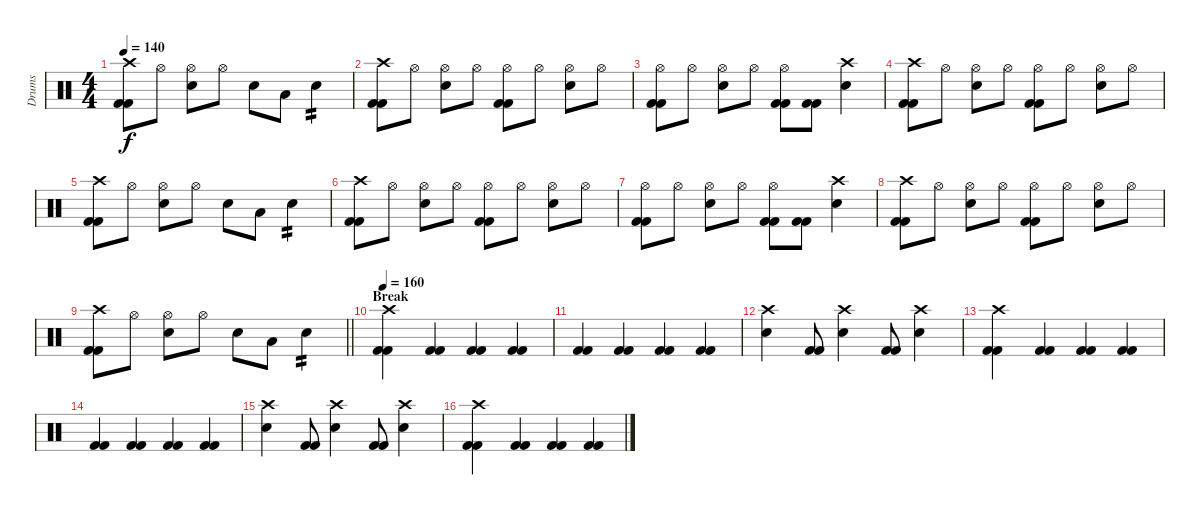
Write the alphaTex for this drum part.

\track ("Drums" "Drums") {instrument percussion}
\staff {score}
\articulation defaults
\ts (4 4)
\tempo 140
\clef neutral
\ks c
("Crash high (hit)" "Kick (hit) 2" "Kick (hit) 2").8{dy f} "Hi-Hat (open)".8 ("Electric Snare (hit)" "Hi-Hat (open)").8 "Hi-Hat (open)".8 "Electric Snare (hit)".8 "Low Tom (hit)".8 "Electric Snare (hit)".4{tp 2} |
("Crash high (hit)" "Kick (hit) 2" "Kick (hit) 2").8 "Hi-Hat (open)".8 ("Electric Snare (hit)" "Hi-Hat (open)").8 "Hi-Hat (open)".8 ("Hi-Hat (open)" "Kick (hit) 2" "Kick (hit) 2").8 "Hi-Hat (open)".8 ("Electric Snare (hit)" "Hi-Hat (open)").8 "Hi-Hat (open)".8 |
("Hi-Hat (open)" "Kick (hit) 2" "Kick (hit) 2").8 "Hi-Hat (open)".8 ("Electric Snare (hit)" "Hi-Hat (open)").8 "Hi-Hat (open)".8 ("Hi-Hat (open)" "Kick (hit) 2" "Kick (hit) 2").8 ("Kick (hit) 2" "Kick (hit) 2").8 ("Electric Snare (hit)" "Crash high (hit)").4 |
("Crash high (hit)" "Kick (hit) 2" "Kick (hit) 2").8 "Hi-Hat (open)".8 ("Electric Snare (hit)" "Hi-Hat (open)").8 "Hi-Hat (open)".8 ("Hi-Hat (open)" "Kick (hit) 2" "Kick (hit) 2").8 "Hi-Hat (open)".8 ("Electric Snare (hit)" "Hi-Hat (open)").8 "Hi-Hat (open)".8 |
("Crash high (hit)" "Kick (hit) 2" "Kick (hit) 2").8 "Hi-Hat (open)".8 ("Electric Snare (hit)" "Hi-Hat (open)").8 "Hi-Hat (open)".8 "Electric Snare (hit)".8 "Low Tom (hit)".8 "Electric Snare (hit)".4{tp 2} |
("Crash high (hit)" "Kick (hit) 2" "Kick (hit) 2").8 "Hi-Hat (open)".8 ("Electric Snare (hit)" "Hi-Hat (open)").8 "Hi-Hat (open)".8 ("Hi-Hat (open)" "Kick (hit) 2" "Kick (hit) 2").8 "Hi-Hat (open)".8 ("Electric Snare (hit)" "Hi-Hat (open)").8 "Hi-Hat (open)".8 |
("Hi-Hat (open)" "Kick (hit) 2" "Kick (hit) 2").8 "Hi-Hat (open)".8 ("Electric Snare (hit)" "Hi-Hat (open)").8 "Hi-Hat (open)".8 ("Hi-Hat (open)" "Kick (hit) 2" "Kick (hit) 2").8 ("Kick (hit) 2" "Kick (hit) 2").8 ("Electric Snare (hit)" "Crash high (hit)").4 |
("Crash high (hit)" "Kick (hit) 2" "Kick (hit) 2").8 "Hi-Hat (open)".8 ("Electric Snare (hit)" "Hi-Hat (open)").8 "Hi-Hat (open)".8 ("Hi-Hat (open)" "Kick (hit) 2" "Kick (hit) 2").8 "Hi-Hat (open)".8 ("Electric Snare (hit)" "Hi-Hat (open)").8 "Hi-Hat (open)".8 |
\barLineRight lightlight
("Crash high (hit)" "Kick (hit) 2" "Kick (hit) 2").8 "Hi-Hat (open)".8 ("Electric Snare (hit)" "Hi-Hat (open)").8 "Hi-Hat (open)".8 "Electric Snare (hit)".8 "Low Tom (hit)".8 "Electric Snare (hit)".4{tp 2} |
\section ("" "Break")
\tempo 160
("Crash high (hit)" "Kick (hit) 2" "Kick (hit) 2").4 ("Kick (hit) 2" "Kick (hit) 2").4 ("Kick (hit) 2" "Kick (hit) 2").4 ("Kick (hit) 2" "Kick (hit) 2").4 |
("Kick (hit) 2" "Kick (hit) 2").4 ("Kick (hit) 2" "Kick (hit) 2").4 ("Kick (hit) 2" "Kick (hit) 2").4 ("Kick (hit) 2" "Kick (hit) 2").4 |
("Crash high (hit)" "Electric Snare (hit)").4 ("Kick (hit) 2" "Kick (hit) 2").8 ("Electric Snare (hit)" "Crash high (hit)").4 ("Kick (hit) 2" "Kick (hit) 2").8 ("Electric Snare (hit)" "Crash high (hit)").4 |
("Crash high (hit)" "Kick (hit) 2" "Kick (hit) 2").4 ("Kick (hit) 2" "Kick (hit) 2").4 ("Kick (hit) 2" "Kick (hit) 2").4 ("Kick (hit) 2" "Kick (hit) 2").4 |
("Kick (hit) 2" "Kick (hit) 2").4 ("Kick (hit) 2" "Kick (hit) 2").4 ("Kick (hit) 2" "Kick (hit) 2").4 ("Kick (hit) 2" "Kick (hit) 2").4 |
("Crash high (hit)" "Electric Snare (hit)").4 ("Kick (hit) 2" "Kick (hit) 2").8 ("Electric Snare (hit)" "Crash high (hit)").4 ("Kick (hit) 2" "Kick (hit) 2").8 ("Electric Snare (hit)" "Crash high (hit)").4 |
("Crash high (hit)" "Kick (hit) 2" "Kick (hit) 2").4 ("Kick (hit) 2" "Kick (hit) 2").4 ("Kick (hit) 2" "Kick (hit) 2").4 ("Kick (hit) 2" "Kick (hit) 2").4
